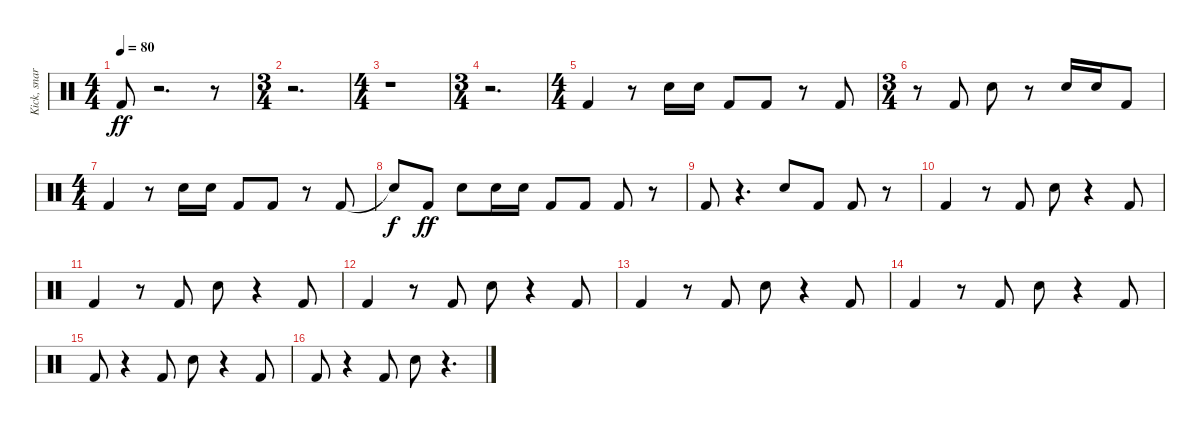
\track ("Kick, snare" "Kick, snar") {instrument percussion}
\staff {score}
\articulation defaults
\ts (4 4)
\tempo 80
\clef neutral
\ks c "Kick (hit) 2".8{dy ff}
r.2{d} r.8 |
\ts (3 4)
r.2{d} |
\ts (4 4)
r.1 |
\ts (3 4)
r.2{d} |
\ts (4 4)
"Kick (hit) 2".4 r.8 "Snare (hit) 2".16 "Snare (hit) 2".16 "Kick (hit) 2".8 "Kick (hit) 2".8 r.8 "Kick (hit) 2".8 |
\ts (3 4)
r.8 "Kick (hit) 2".8 "Snare (hit) 2".8 r.8 "Snare (hit) 2".16 "Snare (hit) 2".16 "Kick (hit) 2".8 |
\ts (4 4)
"Kick (hit) 2".4 r.8 "Snare (hit) 2".16 "Snare (hit) 2".16 "Kick (hit) 2".8 "Kick (hit) 2".8 r.8 "Kick (hit) 2".8 |
"Snare (hit)"{t}.8{dy f} "Kick (hit) 2".8{dy ff} "Snare (hit) 2".8 "Snare (hit) 2".16 "Snare (hit) 2".16 "Kick (hit) 2".8 "Kick (hit) 2".8 "Kick (hit) 2".8 r.8 |
"Kick (hit) 2".8 r.4{d} "Snare (hit) 2".8 "Kick (hit) 2".8 "Kick (hit) 2".8 r.8 |
"Kick (hit) 2".4 r.8 "Kick (hit) 2".8 "Snare (hit) 2".8 r.4 "Kick (hit) 2".8 |
"Kick (hit) 2".4 r.8 "Kick (hit) 2".8 "Snare (hit) 2".8 r.4 "Kick (hit) 2".8 |
"Kick (hit) 2".4 r.8 "Kick (hit) 2".8 "Snare (hit) 2".8 r.4 "Kick (hit) 2".8 |
"Kick (hit) 2".4 r.8 "Kick (hit) 2".8 "Snare (hit) 2".8 r.4 "Kick (hit) 2".8 |
"Kick (hit) 2".4 r.8 "Kick (hit) 2".8 "Snare (hit) 2".8 r.4 "Kick (hit) 2".8 |
"Kick (hit) 2".8 r.4 "Kick (hit) 2".8 "Snare (hit) 2".8 r.4 "Kick (hit) 2".8 |
"Kick (hit) 2".8 r.4 "Kick (hit) 2".8 "Snare (hit) 2".8 r.4{d}
